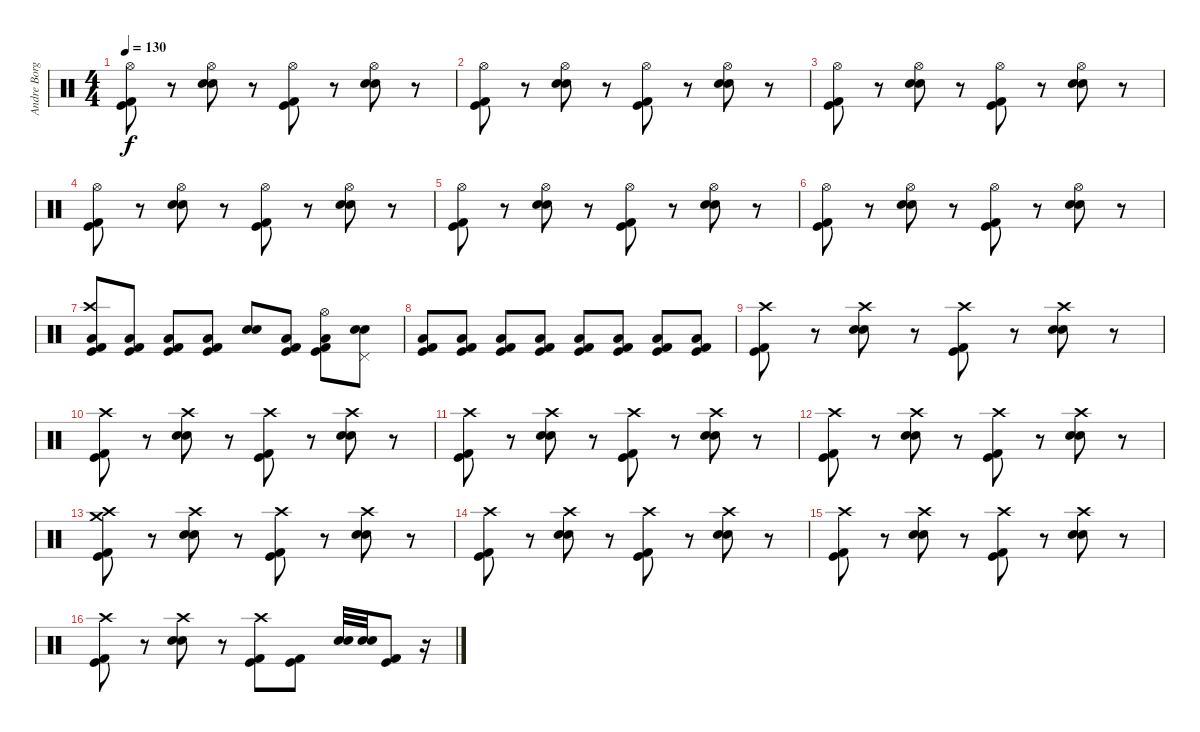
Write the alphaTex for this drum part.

\track ("Andre Borgman" "Andre Borg") {instrument percussion}
\staff {score}
\articulation defaults
\ts (4 4)
\tempo 130
\clef neutral
\ks c
("Hi-Hat (open)" "Kick (hit)" "Kick (hit) 2").8{dy f} r.8 ("Hi-Hat (open)" "Electric Snare (hit)" "Snare (hit) 2").8 r.8 ("Hi-Hat (open)" "Kick (hit)" "Kick (hit) 2").8 r.8 ("Hi-Hat (open)" "Electric Snare (hit)" "Snare (hit) 2").8 r.8 |
("Hi-Hat (open)" "Kick (hit)" "Kick (hit) 2").8 r.8 ("Hi-Hat (open)" "Electric Snare (hit)" "Snare (hit) 2").8 r.8 ("Hi-Hat (open)" "Kick (hit)" "Kick (hit) 2").8 r.8 ("Hi-Hat (open)" "Electric Snare (hit)" "Snare (hit) 2").8 r.8 |
("Hi-Hat (open)" "Kick (hit)" "Kick (hit) 2").8 r.8 ("Hi-Hat (open)" "Electric Snare (hit)" "Snare (hit) 2").8 r.8 ("Hi-Hat (open)" "Kick (hit)" "Kick (hit) 2").8 r.8 ("Hi-Hat (open)" "Electric Snare (hit)" "Snare (hit) 2").8 r.8 |
("Hi-Hat (open)" "Kick (hit)" "Kick (hit) 2").8 r.8 ("Hi-Hat (open)" "Electric Snare (hit)" "Snare (hit) 2").8 r.8 ("Hi-Hat (open)" "Kick (hit)" "Kick (hit) 2").8 r.8 ("Hi-Hat (open)" "Electric Snare (hit)" "Snare (hit) 2").8 r.8 |
("Hi-Hat (open)" "Kick (hit)" "Kick (hit) 2").8 r.8 ("Hi-Hat (open)" "Electric Snare (hit)" "Snare (hit) 2").8 r.8 ("Hi-Hat (open)" "Kick (hit)" "Kick (hit) 2").8 r.8 ("Hi-Hat (open)" "Electric Snare (hit)" "Snare (hit) 2").8 r.8 |
("Hi-Hat (open)" "Kick (hit)" "Kick (hit) 2").8 r.8 ("Hi-Hat (open)" "Electric Snare (hit)" "Snare (hit) 2").8 r.8 ("Hi-Hat (open)" "Kick (hit)" "Kick (hit) 2").8 r.8 ("Hi-Hat (open)" "Electric Snare (hit)" "Snare (hit) 2").8 r.8 |
("Crash high (hit)" "Low Floor Tom (hit)" "Kick (hit)" "Kick (hit) 2").8 ("Low Floor Tom (hit)" "Kick (hit)" "Kick (hit) 2").8 ("Low Floor Tom (hit)" "Kick (hit)" "Kick (hit) 2").8 ("Low Floor Tom (hit)" "Kick (hit)" "Kick (hit) 2").8 ("Electric Snare (hit)" "Snare (hit) 2").8 ("Low Floor Tom (hit)" "Kick (hit)" "Kick (hit) 2").8 ("Hi-Hat (open)" "Low Floor Tom (hit)" "Kick (hit)" "Kick (hit) 2").8 ("Pedal Hi-Hat (hit)" "Electric Snare (hit)" "Snare (hit) 2").8 |
("Low Floor Tom (hit)" "Kick (hit)" "Kick (hit) 2").8 ("Low Floor Tom (hit)" "Kick (hit)" "Kick (hit) 2").8 ("Low Floor Tom (hit)" "Kick (hit)" "Kick (hit) 2").8 ("Low Floor Tom (hit)" "Kick (hit)" "Kick (hit) 2").8 ("Low Floor Tom (hit)" "Kick (hit)" "Kick (hit) 2").8 ("Low Floor Tom (hit)" "Kick (hit)" "Kick (hit) 2").8 ("Low Floor Tom (hit)" "Kick (hit)" "Kick (hit) 2").8 ("Low Floor Tom (hit)" "Kick (hit)" "Kick (hit) 2").8 |
("Crash high (hit)" "Kick (hit)" "Kick (hit) 2").8 r.8 ("Crash high (hit)" "Electric Snare (hit)" "Snare (hit) 2").8 r.8 ("Crash high (hit)" "Kick (hit)" "Kick (hit) 2").8 r.8 ("Crash high (hit)" "Electric Snare (hit)" "Snare (hit) 2").8 r.8 |
("Crash high (hit)" "Kick (hit)" "Kick (hit) 2").8 r.8 ("Crash high (hit)" "Electric Snare (hit)" "Snare (hit) 2").8 r.8 ("Crash high (hit)" "Kick (hit)" "Kick (hit) 2").8 r.8 ("Crash high (hit)" "Electric Snare (hit)" "Snare (hit) 2").8 r.8 |
("Crash high (hit)" "Kick (hit)" "Kick (hit) 2").8 r.8 ("Crash high (hit)" "Electric Snare (hit)" "Snare (hit) 2").8 r.8 ("Crash high (hit)" "Kick (hit)" "Kick (hit) 2").8 r.8 ("Crash high (hit)" "Electric Snare (hit)" "Snare (hit) 2").8 r.8 |
("Crash high (hit)" "Kick (hit)" "Kick (hit) 2").8 r.8 ("Crash high (hit)" "Electric Snare (hit)" "Snare (hit) 2").8 r.8 ("Crash high (hit)" "Kick (hit)" "Kick (hit) 2").8 r.8 ("Crash high (hit)" "Electric Snare (hit)" "Snare (hit) 2").8 r.8 |
("Crash medium (hit)" "Crash high (hit)" "Kick (hit)" "Kick (hit) 2").8 r.8 ("Crash high (hit)" "Electric Snare (hit)" "Snare (hit) 2").8 r.8 ("Crash high (hit)" "Kick (hit)" "Kick (hit) 2").8 r.8 ("Crash high (hit)" "Electric Snare (hit)" "Snare (hit) 2").8 r.8 |
("Crash high (hit)" "Kick (hit)" "Kick (hit) 2").8 r.8 ("Crash high (hit)" "Electric Snare (hit)" "Snare (hit) 2").8 r.8 ("Crash high (hit)" "Kick (hit)" "Kick (hit) 2").8 r.8 ("Crash high (hit)" "Electric Snare (hit)" "Snare (hit) 2").8 r.8 |
("Crash high (hit)" "Kick (hit)" "Kick (hit) 2").8 r.8 ("Crash high (hit)" "Electric Snare (hit)" "Snare (hit) 2").8 r.8 ("Crash high (hit)" "Kick (hit)" "Kick (hit) 2").8 r.8 ("Crash high (hit)" "Electric Snare (hit)" "Snare (hit) 2").8 r.8 |
("Crash high (hit)" "Kick (hit)" "Kick (hit) 2").8 r.8 ("Crash high (hit)" "Electric Snare (hit)" "Snare (hit) 2").8 r.8 ("Crash high (hit)" "Kick (hit)" "Kick (hit) 2").8 ("Kick (hit)" "Kick (hit) 2").8 ("Electric Snare (hit)" "Snare (hit) 2").32 ("Electric Snare (hit)" "Snare (hit) 2").32 ("Kick (hit)" "Kick (hit) 2").8 r.16
